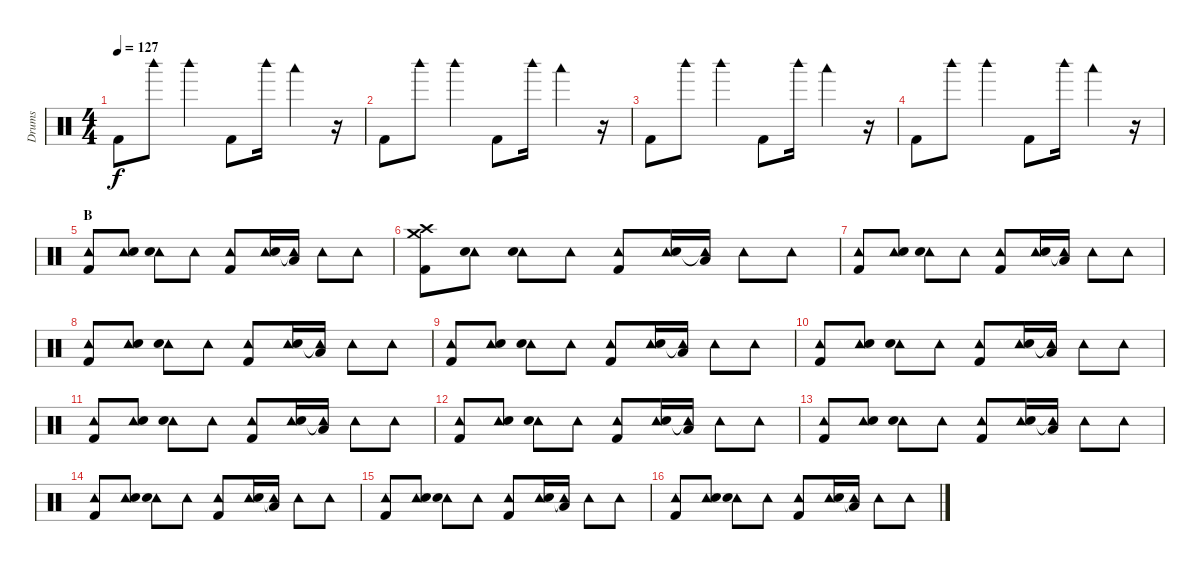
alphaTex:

\track ("Drums" "Drums") {instrument percussion}
\staff {score}
\articulation defaults
\ts (4 4)
\tempo 127
\clef neutral
\ks c "Kick (hit) 2".8{dy f} "Woodblock high (hit)".8 "Woodblock high (hit)".4 "Kick (hit) 2".8 "Woodblock high (hit)".16 "Woodblock low (hit)".4
r.16 |
"Kick (hit) 2".8 "Woodblock high (hit)".8 "Woodblock high (hit)".4 "Kick (hit) 2".8 "Woodblock high (hit)".16 "Woodblock low (hit)".4 r.16 |
"Kick (hit) 2".8 "Woodblock high (hit)".8 "Woodblock high (hit)".4 "Kick (hit) 2".8 "Woodblock high (hit)".16 "Woodblock low (hit)".4 r.16 |
"Kick (hit) 2".8 "Woodblock high (hit)".8 "Woodblock high (hit)".4 "Kick (hit) 2".8 "Woodblock high (hit)".16 "Woodblock low (hit)".4 r.16 |
\section ("" "B")
("Tambourine (hit)" "Kick (hit) 2").8 ("Tambourine (hit)" "Electric Snare (hit)").8 ("Tambourine (hit)" "Electric Snare (hit)").8 "Tambourine (hit)".8 ("Tambourine (hit)" "Kick (hit) 2").8 ("Tambourine (hit)" "Electric Snare (hit)").16 ("Tambourine (hit)"{t} "Low Tom (hit)").16 "Tambourine (hit)".8 "Tambourine (hit)".8 |
("Crash medium (hit)" "Crash high (hit)" "Kick (hit) 2").8 ("Tambourine (hit)" "Electric Snare (hit)").8 ("Tambourine (hit)" "Electric Snare (hit)").8 "Tambourine (hit)".8 ("Tambourine (hit)" "Kick (hit) 2").8 ("Tambourine (hit)" "Electric Snare (hit)").16 ("Tambourine (hit)"{t} "Low Tom (hit)").16 "Tambourine (hit)".8 "Tambourine (hit)".8 |
("Tambourine (hit)" "Kick (hit) 2").8 ("Tambourine (hit)" "Electric Snare (hit)").8 ("Tambourine (hit)" "Electric Snare (hit)").8 "Tambourine (hit)".8 ("Tambourine (hit)" "Kick (hit) 2").8 ("Tambourine (hit)" "Electric Snare (hit)").16 ("Tambourine (hit)"{t} "Low Tom (hit)").16 "Tambourine (hit)".8 "Tambourine (hit)".8 |
("Tambourine (hit)" "Kick (hit) 2").8 ("Tambourine (hit)" "Electric Snare (hit)").8 ("Tambourine (hit)" "Electric Snare (hit)").8 "Tambourine (hit)".8 ("Tambourine (hit)" "Kick (hit) 2").8 ("Tambourine (hit)" "Electric Snare (hit)").16 ("Tambourine (hit)"{t} "Low Tom (hit)").16 "Tambourine (hit)".8 "Tambourine (hit)".8 |
("Tambourine (hit)" "Kick (hit) 2").8 ("Tambourine (hit)" "Electric Snare (hit)").8 ("Tambourine (hit)" "Electric Snare (hit)").8 "Tambourine (hit)".8 ("Tambourine (hit)" "Kick (hit) 2").8 ("Tambourine (hit)" "Electric Snare (hit)").16 ("Tambourine (hit)"{t} "Low Tom (hit)").16 "Tambourine (hit)".8 "Tambourine (hit)".8 |
("Tambourine (hit)" "Kick (hit) 2").8 ("Tambourine (hit)" "Electric Snare (hit)").8 ("Tambourine (hit)" "Electric Snare (hit)").8 "Tambourine (hit)".8 ("Tambourine (hit)" "Kick (hit) 2").8 ("Tambourine (hit)" "Electric Snare (hit)").16 ("Tambourine (hit)"{t} "Low Tom (hit)").16 "Tambourine (hit)".8 "Tambourine (hit)".8 |
("Tambourine (hit)" "Kick (hit) 2").8 ("Tambourine (hit)" "Electric Snare (hit)").8 ("Tambourine (hit)" "Electric Snare (hit)").8 "Tambourine (hit)".8 ("Tambourine (hit)" "Kick (hit) 2").8 ("Tambourine (hit)" "Electric Snare (hit)").16 ("Tambourine (hit)"{t} "Low Tom (hit)").16 "Tambourine (hit)".8 "Tambourine (hit)".8 |
("Tambourine (hit)" "Kick (hit) 2").8 ("Tambourine (hit)" "Electric Snare (hit)").8 ("Tambourine (hit)" "Electric Snare (hit)").8 "Tambourine (hit)".8 ("Tambourine (hit)" "Kick (hit) 2").8 ("Tambourine (hit)" "Electric Snare (hit)").16 ("Tambourine (hit)"{t} "Low Tom (hit)").16 "Tambourine (hit)".8 "Tambourine (hit)".8 |
("Tambourine (hit)" "Kick (hit) 2").8 ("Tambourine (hit)" "Electric Snare (hit)").8 ("Tambourine (hit)" "Electric Snare (hit)").8 "Tambourine (hit)".8 ("Tambourine (hit)" "Kick (hit) 2").8 ("Tambourine (hit)" "Electric Snare (hit)").16 ("Tambourine (hit)"{t} "Low Tom (hit)").16 "Tambourine (hit)".8 "Tambourine (hit)".8 |
("Tambourine (hit)" "Kick (hit) 2").8 ("Tambourine (hit)" "Electric Snare (hit)").8 ("Tambourine (hit)" "Electric Snare (hit)").8 "Tambourine (hit)".8 ("Tambourine (hit)" "Kick (hit) 2").8 ("Tambourine (hit)" "Electric Snare (hit)").16 ("Tambourine (hit)"{t} "Low Tom (hit)").16 "Tambourine (hit)".8 "Tambourine (hit)".8 |
("Tambourine (hit)" "Kick (hit) 2").8 ("Tambourine (hit)" "Electric Snare (hit)").8 ("Tambourine (hit)" "Electric Snare (hit)").8 "Tambourine (hit)".8 ("Tambourine (hit)" "Kick (hit) 2").8 ("Tambourine (hit)" "Electric Snare (hit)").16 ("Tambourine (hit)"{t} "Low Tom (hit)").16 "Tambourine (hit)".8 "Tambourine (hit)".8 |
("Tambourine (hit)" "Kick (hit) 2").8 ("Tambourine (hit)" "Electric Snare (hit)").8 ("Tambourine (hit)" "Electric Snare (hit)").8 "Tambourine (hit)".8 ("Tambourine (hit)" "Kick (hit) 2").8 ("Tambourine (hit)" "Electric Snare (hit)").16 ("Tambourine (hit)"{t} "Low Tom (hit)").16 "Tambourine (hit)".8 "Tambourine (hit)".8
